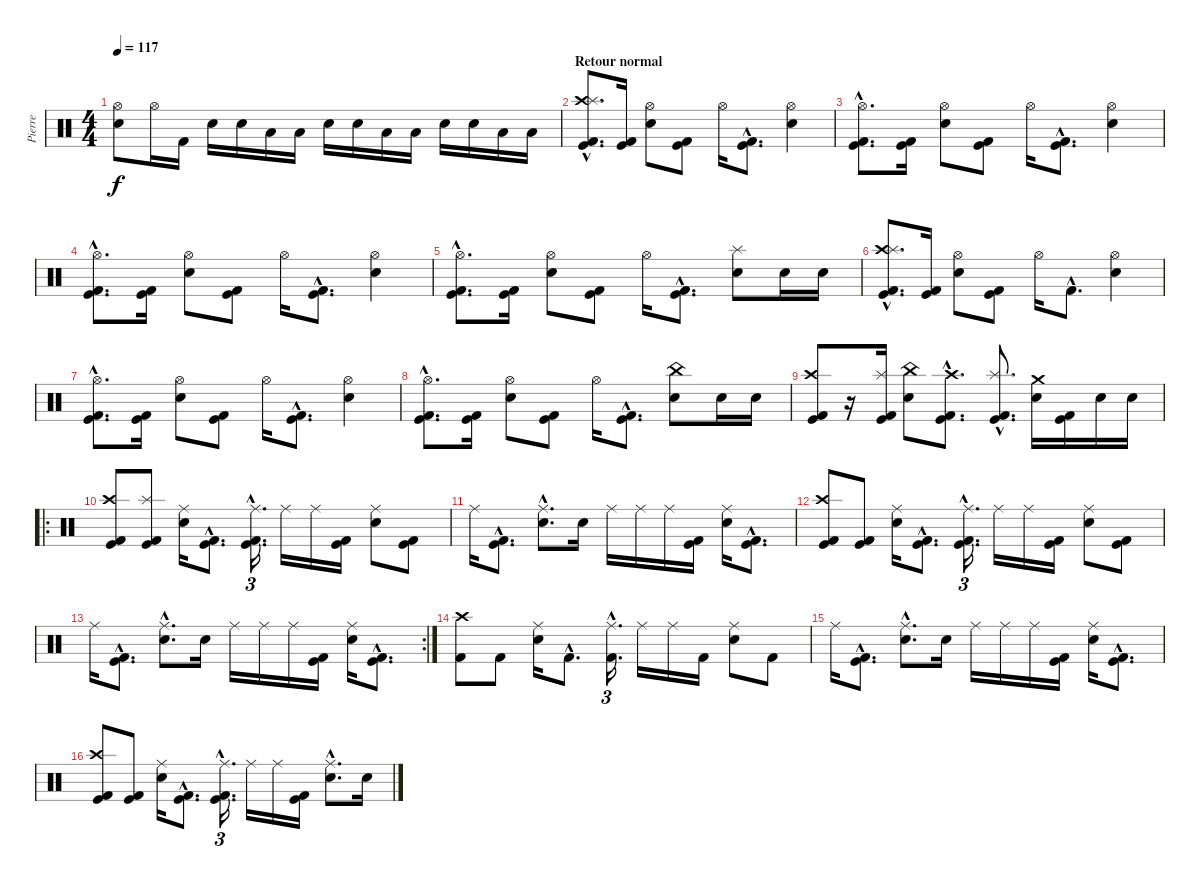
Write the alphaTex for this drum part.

\track ("Pierre" "Pierre") {instrument percussion}
\staff {score}
\articulation defaults
\ts (4 4)
\tempo 117
\clef neutral
\ks c
("Hi-Hat (open)" "Electric Snare (hit)").8{dy f} "Hi-Hat (open)".16 "Kick (hit) 2".16 "Electric Snare (hit)".16 "Electric Snare (hit)".16 "Low Tom (hit)".16 "Low Tom (hit)".16 "Electric Snare (hit)".16 "Electric Snare (hit)".16 "Low Tom (hit)".16 "Low Tom (hit)".16 "Electric Snare (hit)".16 "Electric Snare (hit)".16 "Low Tom (hit)".16 "Low Tom (hit)".16 |
\section ("" "Retour normal")
("Crash high (hit)"{hac} "Splash (hit)"{hac} "Kick (hit)"{hac} "Kick (hit) 2").8{d} ("Kick (hit)" "Kick (hit) 2").16 ("Hi-Hat (open)" "Electric Snare (hit)").8 ("Kick (hit)" "Kick (hit) 2").8 "Hi-Hat (open)".16 ("Kick (hit)"{hac} "Kick (hit) 2"{hac}).8{d} ("Hi-Hat (open)" "Electric Snare (hit)").4 |
("Hi-Hat (open)"{hac} "Kick (hit)"{hac} "Kick (hit) 2").8{d} ("Kick (hit)" "Kick (hit) 2").16 ("Hi-Hat (open)" "Electric Snare (hit)").8 ("Kick (hit)" "Kick (hit) 2").8 "Hi-Hat (open)".16 ("Kick (hit)"{hac} "Kick (hit) 2"{hac}).8{d} ("Hi-Hat (open)" "Electric Snare (hit)").4 |
("Hi-Hat (open)"{hac} "Kick (hit)"{hac} "Kick (hit) 2").8{d} ("Kick (hit)" "Kick (hit) 2").16 ("Hi-Hat (open)" "Electric Snare (hit)").8 ("Kick (hit)" "Kick (hit) 2").8 "Hi-Hat (open)".16 ("Kick (hit)"{hac} "Kick (hit) 2"{hac}).8{d} ("Hi-Hat (open)" "Electric Snare (hit)").4 |
("Hi-Hat (open)"{hac} "Kick (hit)" "Kick (hit) 2").8{d} ("Kick (hit)" "Kick (hit) 2").16 ("Hi-Hat (open)" "Electric Snare (hit)").8 ("Kick (hit)" "Kick (hit) 2").8 "Hi-Hat (open)".16 ("Kick (hit)"{hac} "Kick (hit) 2"{hac}).8{d} ("Splash (hit)" "Electric Snare (hit)").8 "Electric Snare (hit)".16 "Electric Snare (hit)".16 |
("Crash high (hit)"{hac} "Splash (hit)"{hac} "Kick (hit)"{hac} "Kick (hit) 2").8{d} ("Kick (hit)" "Kick (hit) 2").16 ("Hi-Hat (open)" "Electric Snare (hit)").8 ("Kick (hit)" "Kick (hit) 2").8 "Hi-Hat (open)".16 "Kick (hit) 2"{hac}.8{d} ("Hi-Hat (open)" "Electric Snare (hit)").4 |
("Hi-Hat (open)"{hac} "Kick (hit)"{hac} "Kick (hit) 2").8{d} ("Kick (hit)" "Kick (hit) 2").16 ("Hi-Hat (open)" "Electric Snare (hit)").8 ("Kick (hit)" "Kick (hit) 2").8 "Hi-Hat (open)".16 ("Kick (hit)"{hac} "Kick (hit) 2"{hac}).8{d} ("Hi-Hat (open)" "Electric Snare (hit)").4 |
("Hi-Hat (open)"{hac} "Kick (hit)"{hac} "Kick (hit) 2").8{d} ("Kick (hit)" "Kick (hit) 2").16 ("Hi-Hat (open)" "Electric Snare (hit)").8 ("Kick (hit)" "Kick (hit) 2").8 "Hi-Hat (open)".16 ("Kick (hit)"{hac} "Kick (hit) 2"{hac}).8{d} ("China (hit)" "Electric Snare (hit)").8 "Electric Snare (hit)".16 "Electric Snare (hit)".16 |
("Crash high (hit)" "Kick (hit)" "Kick (hit) 2").8 r.16 ("Splash (hit)" "Kick (hit)" "Kick (hit) 2").16 ("China (hit)" "Electric Snare (hit)").8 ("Crash high (hit)"{hac} "Kick (hit) 2"{hac} "Kick (hit)"{hac}).8{d} ("Splash (hit)"{hac} "Kick (hit) 2"{hac} "Kick (hit)"{hac}).8{d} ("Crash medium (hit)" "Electric Snare (hit)").16 ("Kick (hit)" "Kick (hit) 2").16 "Electric Snare (hit)".16 "Electric Snare (hit)".16 |
\ro
("Crash high (hit)" "Kick (hit)" "Kick (hit) 2").8 ("Splash (hit)" "Kick (hit)" "Kick (hit) 2").8 ("Ride (middle)" "Electric Snare (hit)").16 ("Kick (hit)"{hac} "Kick (hit) 2"{hac}).8{d} ("Ride (middle)"{hac} "Kick (hit)"{hac} "Kick (hit) 2"{hac}).16{d tu (3 2)} "Ride (middle)".16 "Ride (middle)".16 ("Kick (hit)" "Kick (hit) 2").16 ("Ride (middle)" "Electric Snare (hit)").8 ("Kick (hit)" "Kick (hit) 2").8 |
"Ride (middle)".16 ("Kick (hit)"{hac} "Kick (hit) 2"{hac}).8{d} ("Ride (middle)"{hac} "Electric Snare (hit)"{hac}).8{d} "Electric Snare (hit)".16 "Ride (middle)".16 "Ride (middle)".16 "Ride (middle)".16 ("Kick (hit)" "Kick (hit) 2").16 ("Ride (middle)" "Electric Snare (hit)").16 ("Kick (hit)"{hac} "Kick (hit) 2"{hac}).8{d} |
("Crash high (hit)" "Kick (hit)" "Kick (hit) 2").8 ("Kick (hit)" "Kick (hit) 2").8 ("Ride (middle)" "Electric Snare (hit)").16 ("Kick (hit)"{hac} "Kick (hit) 2"{hac}).8{d} ("Ride (middle)"{hac} "Kick (hit)"{hac} "Kick (hit) 2"{hac}).16{d tu (3 2)} "Ride (middle)".16 "Ride (middle)".16 ("Kick (hit)" "Kick (hit) 2").16 ("Ride (middle)" "Electric Snare (hit)").8 ("Kick (hit)" "Kick (hit) 2").8 |
\rc 2 "Ride (middle)".16
("Kick (hit)"{hac} "Kick (hit) 2"{hac}).8{d} ("Ride (middle)"{hac} "Electric Snare (hit)"{hac}).8{d} "Electric Snare (hit)".16 "Ride (middle)".16 "Ride (middle)".16 "Ride (middle)".16 ("Kick (hit)" "Kick (hit) 2").16 ("Ride (middle)" "Electric Snare (hit)").16 ("Kick (hit)"{hac} "Kick (hit) 2"{hac}).8{d} |
("Crash high (hit)" "Kick (hit) 2").8 "Kick (hit) 2".8 ("Ride (middle)" "Electric Snare (hit)").16 "Kick (hit) 2"{hac}.8{d} ("Ride (middle)"{hac} "Kick (hit) 2"{hac}).16{d tu (3 2)} "Ride (middle)".16 "Ride (middle)".16 "Kick (hit) 2".16 ("Ride (middle)" "Electric Snare (hit)").8 "Kick (hit) 2".8 |
"Ride (middle)".16 ("Kick (hit)"{hac} "Kick (hit) 2"{hac}).8{d} ("Ride (middle)"{hac} "Electric Snare (hit)"{hac}).8{d} "Electric Snare (hit)".16 "Ride (middle)".16 "Ride (middle)".16 "Ride (middle)".16 ("Kick (hit)" "Kick (hit) 2").16 ("Ride (middle)" "Electric Snare (hit)").16 ("Kick (hit)"{hac} "Kick (hit) 2"{hac}).8{d} |
("Crash high (hit)" "Kick (hit)" "Kick (hit) 2").8 ("Kick (hit)" "Kick (hit) 2").8 ("Ride (middle)" "Electric Snare (hit)").16 ("Kick (hit)"{hac} "Kick (hit) 2"{hac}).8{d} ("Ride (middle)"{hac} "Kick (hit)"{hac} "Kick (hit) 2"{hac}).16{d tu (3 2)} "Ride (middle)".16 "Ride (middle)".16 ("Kick (hit)" "Kick (hit) 2").16 ("Ride (middle)"{hac} "Electric Snare (hit)"{hac}).8{d} "Electric Snare (hit)".16
